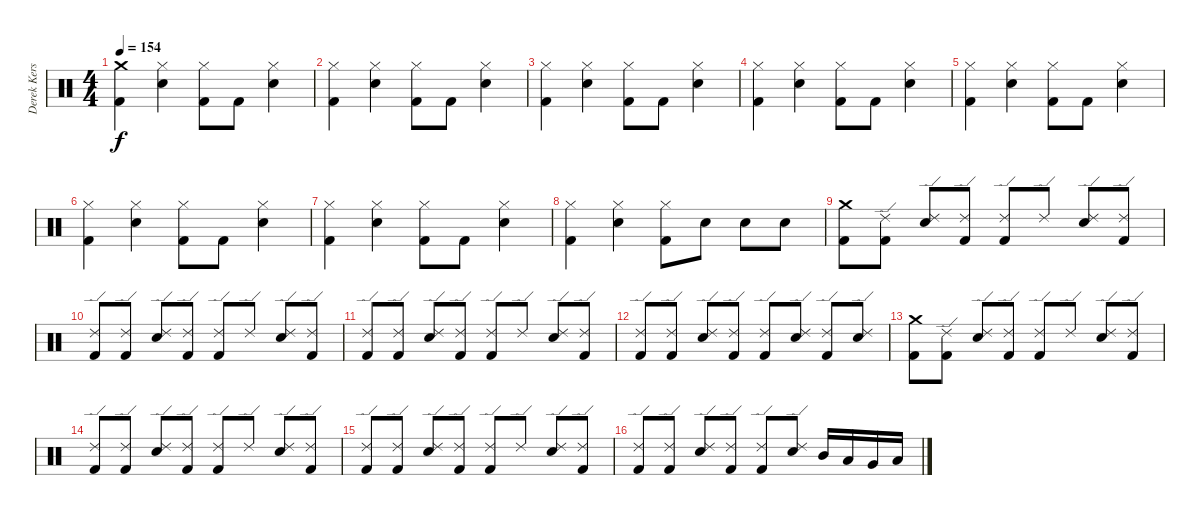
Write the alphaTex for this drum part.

\track ("Derek Kerswill" "Derek Kers") {instrument percussion}
\staff {score}
\articulation defaults
\ts (4 4)
\tempo 154
\clef neutral
\ks c
("Crash medium (hit)" "Kick (hit) 2").4{dy f} ("Hi-Hat (closed)" "Electric Snare (hit)").4 ("Hi-Hat (closed)" "Kick (hit) 2").8 "Kick (hit) 2".8 ("Hi-Hat (closed)" "Electric Snare (hit)").4 |
("Hi-Hat (closed)" "Kick (hit) 2").4 ("Hi-Hat (closed)" "Electric Snare (hit)").4 ("Hi-Hat (closed)" "Kick (hit) 2").8 "Kick (hit) 2".8 ("Hi-Hat (closed)" "Electric Snare (hit)").4 |
("Hi-Hat (closed)" "Kick (hit) 2").4 ("Hi-Hat (closed)" "Electric Snare (hit)").4 ("Hi-Hat (closed)" "Kick (hit) 2").8 "Kick (hit) 2".8 ("Hi-Hat (closed)" "Electric Snare (hit)").4 |
("Hi-Hat (closed)" "Kick (hit) 2").4 ("Hi-Hat (closed)" "Electric Snare (hit)").4 ("Hi-Hat (closed)" "Kick (hit) 2").8 "Kick (hit) 2".8 ("Hi-Hat (closed)" "Electric Snare (hit)").4 |
("Hi-Hat (closed)" "Kick (hit) 2").4 ("Hi-Hat (closed)" "Electric Snare (hit)").4 ("Hi-Hat (closed)" "Kick (hit) 2").8 "Kick (hit) 2".8 ("Hi-Hat (closed)" "Electric Snare (hit)").4 |
("Hi-Hat (closed)" "Kick (hit) 2").4 ("Hi-Hat (closed)" "Electric Snare (hit)").4 ("Hi-Hat (closed)" "Kick (hit) 2").8 "Kick (hit) 2".8 ("Hi-Hat (closed)" "Electric Snare (hit)").4 |
("Hi-Hat (closed)" "Kick (hit) 2").4 ("Hi-Hat (closed)" "Electric Snare (hit)").4 ("Hi-Hat (closed)" "Kick (hit) 2").8 "Kick (hit) 2".8 ("Hi-Hat (closed)" "Electric Snare (hit)").4 |
("Hi-Hat (closed)" "Kick (hit) 2").4 ("Hi-Hat (closed)" "Electric Snare (hit)").4 ("Hi-Hat (closed)" "Kick (hit) 2").8 "Electric Snare (hit)".8 "Electric Snare (hit)".8 "Electric Snare (hit)".8 |
("Crash medium (hit)" "Kick (hit) 2").8 ("Ride (edge) 2" "Kick (hit) 2").8 ("Ride (edge) 2" "Electric Snare (hit)").8 ("Ride (edge) 2" "Kick (hit) 2").8 ("Ride (edge) 2" "Kick (hit) 2").8 "Ride (edge) 2".8 ("Ride (edge) 2" "Electric Snare (hit)").8 ("Ride (edge) 2" "Kick (hit) 2").8 |
("Ride (edge) 2" "Kick (hit) 2").8 ("Ride (edge) 2" "Kick (hit) 2").8 ("Ride (edge) 2" "Electric Snare (hit)").8 ("Ride (edge) 2" "Kick (hit) 2").8 ("Ride (edge) 2" "Kick (hit) 2").8 "Ride (edge) 2".8 ("Ride (edge) 2" "Electric Snare (hit)").8 ("Ride (edge) 2" "Kick (hit) 2").8 |
("Ride (edge) 2" "Kick (hit) 2").8 ("Ride (edge) 2" "Kick (hit) 2").8 ("Ride (edge) 2" "Electric Snare (hit)").8 ("Ride (edge) 2" "Kick (hit) 2").8 ("Ride (edge) 2" "Kick (hit) 2").8 "Ride (edge) 2".8 ("Ride (edge) 2" "Electric Snare (hit)").8 ("Ride (edge) 2" "Kick (hit) 2").8 |
("Ride (edge) 2" "Kick (hit) 2").8 ("Ride (edge) 2" "Kick (hit) 2").8 ("Ride (edge) 2" "Electric Snare (hit)").8 ("Ride (edge) 2" "Kick (hit) 2").8 ("Ride (edge) 2" "Kick (hit) 2").8 ("Ride (edge) 2" "Electric Snare (hit)").8 ("Ride (edge) 2" "Kick (hit) 2").8 ("Ride (edge) 2" "Electric Snare (hit)").8 |
("Crash medium (hit)" "Kick (hit) 2").8 ("Ride (edge) 2" "Kick (hit) 2").8 ("Ride (edge) 2" "Electric Snare (hit)").8 ("Ride (edge) 2" "Kick (hit) 2").8 ("Ride (edge) 2" "Kick (hit) 2").8 "Ride (edge) 2".8 ("Ride (edge) 2" "Electric Snare (hit)").8 ("Ride (edge) 2" "Kick (hit) 2").8 |
("Ride (edge) 2" "Kick (hit) 2").8 ("Ride (edge) 2" "Kick (hit) 2").8 ("Ride (edge) 2" "Electric Snare (hit)").8 ("Ride (edge) 2" "Kick (hit) 2").8 ("Ride (edge) 2" "Kick (hit) 2").8 "Ride (edge) 2".8 ("Ride (edge) 2" "Electric Snare (hit)").8 ("Ride (edge) 2" "Kick (hit) 2").8 |
("Ride (edge) 2" "Kick (hit) 2").8 ("Ride (edge) 2" "Kick (hit) 2").8 ("Ride (edge) 2" "Electric Snare (hit)").8 ("Ride (edge) 2" "Kick (hit) 2").8 ("Ride (edge) 2" "Kick (hit) 2").8 "Ride (edge) 2".8 ("Ride (edge) 2" "Electric Snare (hit)").8 ("Ride (edge) 2" "Kick (hit) 2").8 |
("Ride (edge) 2" "Kick (hit) 2").8 ("Ride (edge) 2" "Kick (hit) 2").8 ("Ride (edge) 2" "Electric Snare (hit)").8 ("Ride (edge) 2" "Kick (hit) 2").8 ("Ride (edge) 2" "Kick (hit) 2").8 ("Ride (edge) 2" "Electric Snare (hit)").8 "Mid Tom (hit)".16 "Low Tom (hit)".16 "Very Low Tom (hit)".16 "Low Floor Tom (hit)".16
